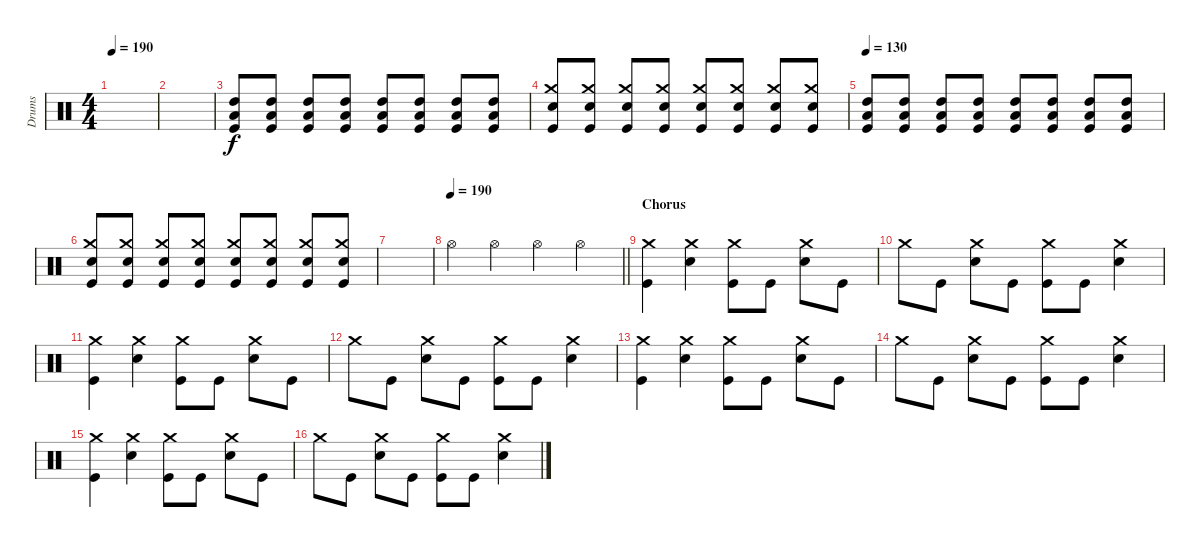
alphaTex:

\track ("Drums" "Drums") {instrument percussion}
\staff {score}
\articulation defaults
\ts (4 4)
\tempo 190
\clef neutral
\ks c
|
|
("High Tom (hit)" "Low Floor Tom (hit)" "Kick (hit)").8 ("High Tom (hit)" "Low Floor Tom (hit)" "Kick (hit)").8 ("High Tom (hit)" "Low Floor Tom (hit)" "Kick (hit)").8 ("High Tom (hit)" "Low Floor Tom (hit)" "Kick (hit)").8 ("High Tom (hit)" "Low Floor Tom (hit)" "Kick (hit)").8 ("High Tom (hit)" "Low Floor Tom (hit)" "Kick (hit)").8 ("High Tom (hit)" "Low Floor Tom (hit)" "Kick (hit)").8 ("High Tom (hit)" "Low Floor Tom (hit)" "Kick (hit)").8 |
("Crash medium (hit)" "Snare (hit) 2" "Kick (hit)").8 ("Crash medium (hit)" "Snare (hit) 2" "Kick (hit)").8 ("Crash medium (hit)" "Snare (hit) 2" "Kick (hit)").8 ("Crash medium (hit)" "Snare (hit) 2" "Kick (hit)").8 ("Crash medium (hit)" "Snare (hit) 2" "Kick (hit)").8 ("Crash medium (hit)" "Snare (hit) 2" "Kick (hit)").8 ("Crash medium (hit)" "Snare (hit) 2" "Kick (hit)").8 ("Crash medium (hit)" "Snare (hit) 2" "Kick (hit)").8 |
\tempo 130
("High Tom (hit)" "Low Floor Tom (hit)" "Kick (hit)").8 ("High Tom (hit)" "Low Floor Tom (hit)" "Kick (hit)").8 ("High Tom (hit)" "Low Floor Tom (hit)" "Kick (hit)").8 ("High Tom (hit)" "Low Floor Tom (hit)" "Kick (hit)").8 ("High Tom (hit)" "Low Floor Tom (hit)" "Kick (hit)").8 ("High Tom (hit)" "Low Floor Tom (hit)" "Kick (hit)").8 ("High Tom (hit)" "Low Floor Tom (hit)" "Kick (hit)").8 ("High Tom (hit)" "Low Floor Tom (hit)" "Kick (hit)").8 |
("Crash medium (hit)" "Snare (hit) 2" "Kick (hit)").8 ("Crash medium (hit)" "Snare (hit) 2" "Kick (hit)").8 ("Crash medium (hit)" "Snare (hit) 2" "Kick (hit)").8 ("Crash medium (hit)" "Snare (hit) 2" "Kick (hit)").8 ("Crash medium (hit)" "Snare (hit) 2" "Kick (hit)").8 ("Crash medium (hit)" "Snare (hit) 2" "Kick (hit)").8 ("Crash medium (hit)" "Snare (hit) 2" "Kick (hit)").8 ("Crash medium (hit)" "Snare (hit) 2" "Kick (hit)").8 |
|
\tempo 190
\barLineRight lightlight "Hi-Hat (open)".4 "Hi-Hat (open)".4 "Hi-Hat (open)".4 "Hi-Hat (open)".4
|
\section ("" "Chorus")
("Crash medium (hit)" "Kick (hit)").4 ("Crash medium (hit)" "Snare (hit) 2").4 ("Crash medium (hit)" "Kick (hit)").8 "Kick (hit)".8 ("Crash medium (hit)" "Snare (hit) 2").8 "Kick (hit)".8 |
"Crash medium (hit)".8 "Kick (hit)".8 ("Crash medium (hit)" "Snare (hit) 2").8 "Kick (hit)".8 ("Crash medium (hit)" "Kick (hit)").8 "Kick (hit)".8 ("Crash medium (hit)" "Snare (hit) 2").4 |
("Crash medium (hit)" "Kick (hit)").4 ("Crash medium (hit)" "Snare (hit) 2").4 ("Crash medium (hit)" "Kick (hit)").8 "Kick (hit)".8 ("Crash medium (hit)" "Snare (hit) 2").8 "Kick (hit)".8 |
"Crash medium (hit)".8 "Kick (hit)".8 ("Crash medium (hit)" "Snare (hit) 2").8 "Kick (hit)".8 ("Crash medium (hit)" "Kick (hit)").8 "Kick (hit)".8 ("Crash medium (hit)" "Snare (hit) 2").4 |
("Crash medium (hit)" "Kick (hit)").4 ("Crash medium (hit)" "Snare (hit) 2").4 ("Crash medium (hit)" "Kick (hit)").8 "Kick (hit)".8 ("Crash medium (hit)" "Snare (hit) 2").8 "Kick (hit)".8 |
"Crash medium (hit)".8 "Kick (hit)".8 ("Crash medium (hit)" "Snare (hit) 2").8 "Kick (hit)".8 ("Crash medium (hit)" "Kick (hit)").8 "Kick (hit)".8 ("Crash medium (hit)" "Snare (hit) 2").4 |
("Crash medium (hit)" "Kick (hit)").4 ("Crash medium (hit)" "Snare (hit) 2").4 ("Crash medium (hit)" "Kick (hit)").8 "Kick (hit)".8 ("Crash medium (hit)" "Snare (hit) 2").8 "Kick (hit)".8 |
"Crash medium (hit)".8 "Kick (hit)".8 ("Crash medium (hit)" "Snare (hit) 2").8 "Kick (hit)".8 ("Crash medium (hit)" "Kick (hit)").8 "Kick (hit)".8 ("Crash medium (hit)" "Snare (hit) 2").4
